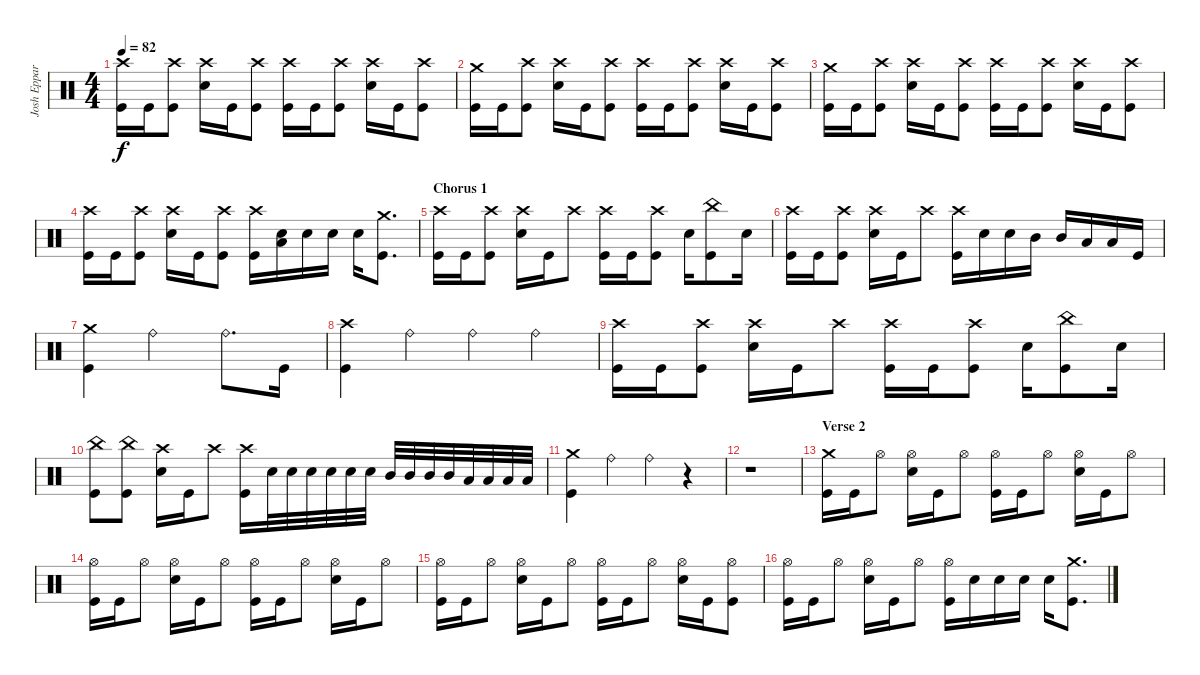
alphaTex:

\track ("Josh Eppard" "Josh Eppar") {instrument percussion}
\staff {score}
\articulation defaults
\ts (4 4)
\tempo 82
\clef neutral
\ks c
("Kick (hit)" "Crash high (hit)").16{dy f} "Kick (hit)".16 ("Kick (hit)" "Crash high (hit)").8 ("Snare (hit) 2" "Crash high (hit)").16 "Kick (hit)".16 ("Kick (hit)" "Crash high (hit)").8 ("Kick (hit)" "Crash high (hit)").16 "Kick (hit)".16 ("Kick (hit)" "Crash high (hit)").8 ("Snare (hit) 2" "Crash high (hit)").16 "Kick (hit)".16 ("Kick (hit)" "Crash high (hit)").8 |
("Kick (hit)" "Crash medium (hit)").16 "Kick (hit)".16 ("Crash high (hit)" "Kick (hit)").8 ("Crash high (hit)" "Snare (hit) 2").16 "Kick (hit)".16 ("Crash high (hit)" "Kick (hit)").8 ("Crash high (hit)" "Kick (hit)").16 "Kick (hit)".16 ("Crash high (hit)" "Kick (hit)").8 ("Crash high (hit)" "Snare (hit) 2").16 "Kick (hit)".16 ("Crash high (hit)" "Kick (hit)").8 |
("Kick (hit)" "Crash medium (hit)").16 "Kick (hit)".16 ("Crash high (hit)" "Kick (hit)").8 ("Crash high (hit)" "Snare (hit) 2").16 "Kick (hit)".16 ("Crash high (hit)" "Kick (hit)").8 ("Crash high (hit)" "Kick (hit)").16 "Kick (hit)".16 ("Crash high (hit)" "Kick (hit)").8 ("Crash high (hit)" "Snare (hit) 2").16 "Kick (hit)".16 ("Crash high (hit)" "Kick (hit)").8 |
("Crash high (hit)" "Kick (hit)").16 "Kick (hit)".16 ("Crash high (hit)" "Kick (hit)").8 ("Crash high (hit)" "Snare (hit) 2").16 "Kick (hit)".16 ("Crash high (hit)" "Kick (hit)").8 ("Crash high (hit)" "Kick (hit)").16 ("Snare (hit) 2" "Low Tom (hit)").16 "Snare (hit) 2".16 "Snare (hit) 2".16 "Snare (hit) 2".16 ("Kick (hit)" "Crash medium (hit)").8{d} |
\section ("" "Chorus 1")
("Crash high (hit)" "Kick (hit)").16 "Kick (hit)".16 ("Crash high (hit)" "Kick (hit)").8 ("Crash high (hit)" "Snare (hit) 2").16 "Kick (hit)".16 "Crash high (hit)".8 ("Crash high (hit)" "Kick (hit)").16 "Kick (hit)".16 ("Crash high (hit)" "Kick (hit)").8 "Snare (hit) 2".16 ("Kick (hit)" "China (hit)").8 "Snare (hit) 2".16 |
("Crash high (hit)" "Kick (hit)").16 "Kick (hit)".16 ("Crash high (hit)" "Kick (hit)").8 ("Crash high (hit)" "Snare (hit) 2").16 "Kick (hit)".16 "Crash high (hit)".8 ("Crash high (hit)" "Kick (hit)").16 "Snare (hit) 2".16 "Snare (hit) 2".16 "Mid Tom (hit)".16 "Mid Tom (hit)".16 "Low Tom (hit)".16 "Low Tom (hit)".16 "Kick (hit)".16 |
("Kick (hit)" "Crash medium (hit)").4 "Ride (bell)".2 "Ride (bell)".8{d} "Kick (hit)".16 |
("Crash high (hit)" "Kick (hit)").4 "Ride (bell)".4 "Ride (bell)".4 "Ride (bell)".4 |
("Crash high (hit)" "Kick (hit)").16 "Kick (hit)".16 ("Crash high (hit)" "Kick (hit)").8 ("Crash high (hit)" "Snare (hit) 2").16 "Kick (hit)".16 "Crash high (hit)".8 ("Crash high (hit)" "Kick (hit)").16 "Kick (hit)".16 ("Crash high (hit)" "Kick (hit)").8 "Snare (hit) 2".16 ("Kick (hit)" "China (hit)").8 "Snare (hit) 2".16 |
("Kick (hit)" "China (hit)").8 ("Kick (hit)" "China (hit)").8 ("Crash high (hit)" "Snare (hit) 2").16 "Kick (hit)".16 "Crash high (hit)".8 ("Crash high (hit)" "Kick (hit)").16 "Snare (hit) 2".32 "Snare (hit) 2".32 "Snare (hit) 2".32 "Snare (hit) 2".32 "Snare (hit) 2".32 "Snare (hit) 2".32 "Mid Tom (hit)".32 "Mid Tom (hit)".32 "Mid Tom (hit)".32 "Mid Tom (hit)".32 "Low Tom (hit)".32 "Low Tom (hit)".32 "Low Tom (hit)".32 "Low Tom (hit)".32 |
("Kick (hit)" "Crash medium (hit)").4 "Ride (bell)".4 "Ride (bell)".4 r.4 |
r.1 |
\section ("" "Verse 2")
("Kick (hit)" "Crash medium (hit)").16 "Kick (hit)".16 "Hi-Hat (open)".8 ("Hi-Hat (open)" "Snare (hit) 2").16 "Kick (hit)".16 "Hi-Hat (open)".8 ("Hi-Hat (open)" "Kick (hit)").16 "Kick (hit)".16 "Hi-Hat (open)".8 ("Hi-Hat (open)" "Snare (hit) 2").16 "Kick (hit)".16 "Hi-Hat (open)".8 |
("Kick (hit)" "Hi-Hat (open)").16 "Kick (hit)".16 "Hi-Hat (open)".8 ("Hi-Hat (open)" "Snare (hit) 2").16 "Kick (hit)".16 "Hi-Hat (open)".8 ("Hi-Hat (open)" "Kick (hit)").16 "Kick (hit)".16 "Hi-Hat (open)".8 ("Hi-Hat (open)" "Snare (hit) 2").16 "Kick (hit)".16 "Hi-Hat (open)".8 |
("Kick (hit)" "Hi-Hat (open)").16 "Kick (hit)".16 "Hi-Hat (open)".8 ("Hi-Hat (open)" "Snare (hit) 2").16 "Kick (hit)".16 "Hi-Hat (open)".8 ("Hi-Hat (open)" "Kick (hit)").16 "Kick (hit)".16 "Hi-Hat (open)".8 ("Hi-Hat (open)" "Snare (hit) 2").16 "Kick (hit)".16 ("Hi-Hat (open)" "Kick (hit)").8 |
("Kick (hit)" "Hi-Hat (open)").16 "Kick (hit)".16 "Hi-Hat (open)".8 ("Hi-Hat (open)" "Snare (hit) 2").16 "Kick (hit)".16 "Hi-Hat (open)".8 ("Hi-Hat (open)" "Kick (hit)").16 "Snare (hit) 2".16 "Snare (hit) 2".16 "Snare (hit) 2".16 "Snare (hit) 2".16 ("Kick (hit)" "Crash medium (hit)").8{d}
